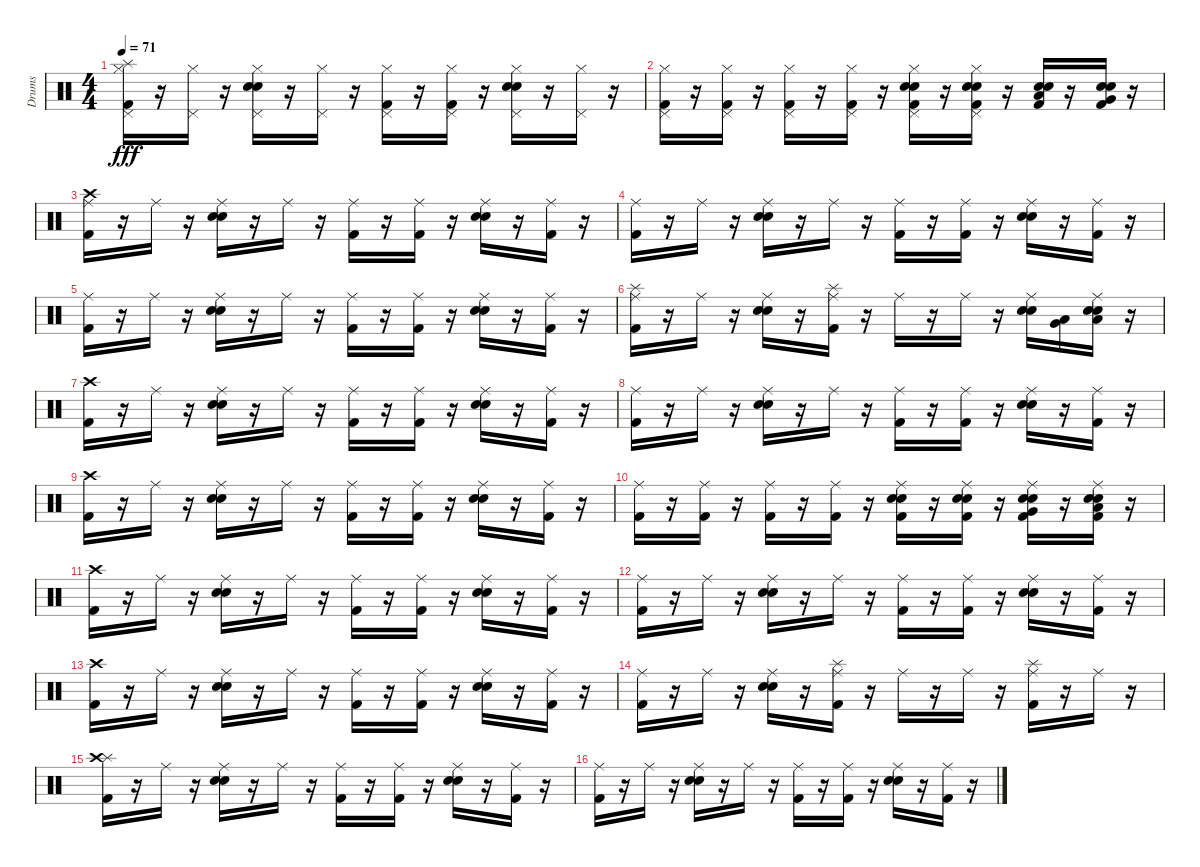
\track ("Drums" "Drums") {instrument percussion}
\staff {score}
\articulation defaults
\ts (4 4)
\tempo 71
\clef neutral
\ks c
("Hi-Hat (closed)" "Pedal Hi-Hat (hit)" "Splash (hit)" "Kick (hit) 2").16{dy fff} r.16 ("Hi-Hat (closed)" "Pedal Hi-Hat (hit)").16 r.16 ("Hi-Hat (closed)" "Snare (hit) 2" "Electric Snare (hit)" "Pedal Hi-Hat (hit)").16 r.16 ("Hi-Hat (closed)" "Pedal Hi-Hat (hit)").16 r.16 ("Hi-Hat (closed)" "Pedal Hi-Hat (hit)" "Kick (hit) 2").16 r.16 ("Hi-Hat (closed)" "Pedal Hi-Hat (hit)" "Kick (hit) 2").16 r.16 ("Hi-Hat (closed)" "Snare (hit) 2" "Electric Snare (hit)" "Pedal Hi-Hat (hit)").16 r.16 ("Hi-Hat (closed)" "Pedal Hi-Hat (hit)").16 r.16 |
("Hi-Hat (closed)" "Pedal Hi-Hat (hit)" "Kick (hit) 2").16 r.16 ("Hi-Hat (closed)" "Pedal Hi-Hat (hit)" "Kick (hit) 2").16 r.16 ("Hi-Hat (closed)" "Pedal Hi-Hat (hit)" "Kick (hit) 2").16 r.16 ("Hi-Hat (closed)" "Pedal Hi-Hat (hit)" "Kick (hit) 2").16 r.16 ("Hi-Hat (closed)" "Snare (hit) 2" "Electric Snare (hit)" "Pedal Hi-Hat (hit)" "Kick (hit) 2").16 r.16 ("Hi-Hat (closed)" "Snare (hit) 2" "Electric Snare (hit)" "Pedal Hi-Hat (hit)" "Kick (hit) 2").16 r.16 ("Snare (hit) 2" "Electric Snare (hit)" "Low Tom (hit)" "Kick (hit) 2").16 r.16 ("Snare (hit) 2" "Electric Snare (hit)" "Very Low Tom (hit)" "Kick (hit) 2").16 r.16 |
("Ride (middle)" "Crash high (hit)" "Kick (hit) 2").16 r.16 "Ride (middle)".16 r.16 ("Snare (hit) 2" "Electric Snare (hit)" "Ride (middle)").16 r.16 "Ride (middle)".16 r.16 ("Ride (middle)" "Kick (hit) 2").16 r.16 ("Ride (middle)" "Kick (hit) 2").16 r.16 ("Snare (hit) 2" "Electric Snare (hit)" "Ride (middle)").16 r.16 ("Ride (middle)" "Kick (hit) 2").16 r.16 |
("Ride (middle)" "Kick (hit) 2").16 r.16 "Ride (middle)".16 r.16 ("Snare (hit) 2" "Electric Snare (hit)" "Ride (middle)").16 r.16 "Ride (middle)".16 r.16 ("Ride (middle)" "Kick (hit) 2").16 r.16 ("Ride (middle)" "Kick (hit) 2").16 r.16 ("Snare (hit) 2" "Electric Snare (hit)" "Ride (middle)").16 r.16 ("Ride (middle)" "Kick (hit) 2").16 r.16 |
("Ride (middle)" "Kick (hit) 2").16 r.16 "Ride (middle)".16 r.16 ("Snare (hit) 2" "Electric Snare (hit)" "Ride (middle)").16 r.16 "Ride (middle)".16 r.16 ("Ride (middle)" "Kick (hit) 2").16 r.16 ("Ride (middle)" "Kick (hit) 2").16 r.16 ("Snare (hit) 2" "Electric Snare (hit)" "Ride (middle)").16 r.16 ("Ride (middle)" "Kick (hit) 2").16 r.16 |
("Splash (hit)" "Ride (middle)" "Kick (hit) 2").16 r.16 "Ride (middle)".16 r.16 ("Snare (hit) 2" "Electric Snare (hit)" "Ride (middle)").16 r.16 ("Splash (hit)" "Kick (hit) 2" "Ride (middle)").16 r.16 "Ride (middle)".16 r.16 "Ride (middle)".16 r.16 ("Snare (hit) 2" "Electric Snare (hit)" "Ride (middle)").16 ("Very Low Tom (hit)" "Low Floor Tom (hit)").16 ("Snare (hit) 2" "Electric Snare (hit)" "Low Floor Tom (hit)" "Ride (middle)").16 r.16 |
("Crash high (hit)" "Kick (hit) 2").16 r.16 "Ride (middle)".16 r.16 ("Snare (hit) 2" "Electric Snare (hit)" "Ride (middle)").16 r.16 "Ride (middle)".16 r.16 ("Ride (middle)" "Kick (hit) 2").16 r.16 ("Ride (middle)" "Kick (hit) 2").16 r.16 ("Snare (hit) 2" "Electric Snare (hit)" "Ride (middle)").16 r.16 ("Ride (middle)" "Kick (hit) 2").16 r.16 |
("Ride (middle)" "Kick (hit) 2").16 r.16 "Ride (middle)".16 r.16 ("Snare (hit) 2" "Electric Snare (hit)" "Ride (middle)").16 r.16 "Ride (middle)".16 r.16 ("Ride (middle)" "Kick (hit) 2").16 r.16 ("Ride (middle)" "Kick (hit) 2").16 r.16 ("Snare (hit) 2" "Electric Snare (hit)" "Ride (middle)").16 r.16 ("Ride (middle)" "Kick (hit) 2").16 r.16 |
("Crash high (hit)" "Kick (hit) 2").16 r.16 "Ride (middle)".16 r.16 ("Snare (hit) 2" "Electric Snare (hit)" "Ride (middle)").16 r.16 "Ride (middle)".16 r.16 ("Ride (middle)" "Kick (hit) 2").16 r.16 ("Ride (middle)" "Kick (hit) 2").16 r.16 ("Snare (hit) 2" "Electric Snare (hit)" "Ride (middle)").16 r.16 ("Ride (middle)" "Kick (hit) 2").16 r.16 |
("Ride (middle)" "Kick (hit) 2").16 r.16 ("Kick (hit) 2" "Ride (middle)").16 r.16 ("Kick (hit) 2" "Ride (middle)").16 r.16 ("Kick (hit) 2" "Ride (middle)").16 r.16 ("Snare (hit) 2" "Electric Snare (hit)" "Ride (middle)" "Kick (hit) 2").16 r.16 ("Snare (hit) 2" "Electric Snare (hit)" "Ride (middle)" "Kick (hit) 2").16 r.16 ("Very Low Tom (hit)" "Snare (hit) 2" "Electric Snare (hit)" "Ride (middle)" "Kick (hit) 2").16 r.16 ("Low Floor Tom (hit)" "Snare (hit) 2" "Electric Snare (hit)" "Ride (middle)" "Kick (hit) 2").16 r.16 |
("Crash high (hit)" "Kick (hit) 2").16 r.16 "Ride (middle)".16 r.16 ("Snare (hit) 2" "Electric Snare (hit)" "Ride (middle)").16 r.16 "Ride (middle)".16 r.16 ("Ride (middle)" "Kick (hit) 2").16 r.16 ("Ride (middle)" "Kick (hit) 2").16 r.16 ("Snare (hit) 2" "Electric Snare (hit)" "Ride (middle)").16 r.16 ("Ride (middle)" "Kick (hit) 2").16 r.16 |
("Ride (middle)" "Kick (hit) 2").16 r.16 "Ride (middle)".16 r.16 ("Snare (hit) 2" "Electric Snare (hit)" "Ride (middle)").16 r.16 "Ride (middle)".16 r.16 ("Ride (middle)" "Kick (hit) 2").16 r.16 ("Ride (middle)" "Kick (hit) 2").16 r.16 ("Snare (hit) 2" "Electric Snare (hit)" "Ride (middle)").16 r.16 ("Ride (middle)" "Kick (hit) 2").16 r.16 |
("Crash high (hit)" "Kick (hit) 2").16 r.16 "Ride (middle)".16 r.16 ("Snare (hit) 2" "Electric Snare (hit)" "Ride (middle)").16 r.16 "Ride (middle)".16 r.16 ("Ride (middle)" "Kick (hit) 2").16 r.16 ("Ride (middle)" "Kick (hit) 2").16 r.16 ("Snare (hit) 2" "Electric Snare (hit)" "Ride (middle)").16 r.16 ("Ride (middle)" "Kick (hit) 2").16 r.16 |
("Ride (middle)" "Kick (hit) 2").16 r.16 "Ride (middle)".16 r.16 ("Snare (hit) 2" "Electric Snare (hit)" "Ride (middle)").16 r.16 ("Splash (hit)" "Kick (hit) 2" "Ride (middle)").16 r.16 "Ride (middle)".16 r.16 "Ride (middle)".16 r.16 ("Splash (hit)" "Ride (middle)" "Kick (hit) 2").16 r.16 "Ride (middle)".16 r.16 |
("Splash (hit)" "Crash high (hit)" "Kick (hit) 2").16 r.16 "Ride (middle)".16 r.16 ("Snare (hit) 2" "Electric Snare (hit)" "Ride (middle)").16 r.16 "Ride (middle)".16 r.16 ("Ride (middle)" "Kick (hit) 2").16 r.16 ("Ride (middle)" "Kick (hit) 2").16 r.16 ("Snare (hit) 2" "Electric Snare (hit)" "Ride (middle)").16 r.16 ("Ride (middle)" "Kick (hit) 2").16 r.16 |
("Ride (middle)" "Kick (hit) 2").16 r.16 "Ride (middle)".16 r.16 ("Snare (hit) 2" "Electric Snare (hit)" "Ride (middle)").16 r.16 "Ride (middle)".16 r.16 ("Ride (middle)" "Kick (hit) 2").16 r.16 ("Ride (middle)" "Kick (hit) 2").16 r.16 ("Snare (hit) 2" "Electric Snare (hit)" "Ride (middle)").16 r.16 ("Ride (middle)" "Kick (hit) 2").16 r.16
